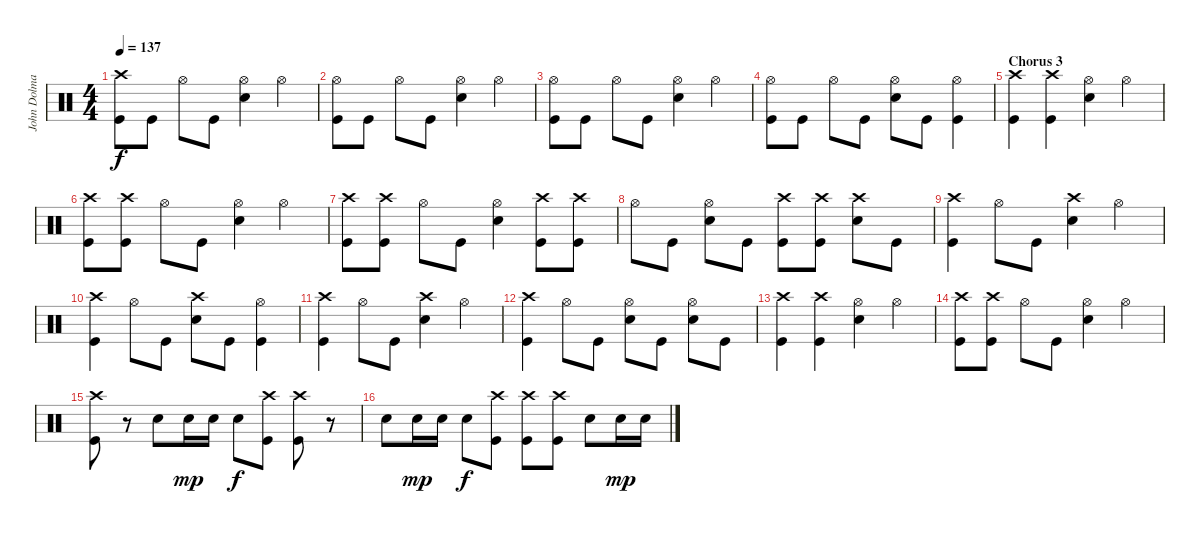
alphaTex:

\track ("John Dolmayan - Drums" "John Dolma") {instrument percussion}
\staff {score}
\articulation defaults
\ts (4 4)
\tempo 137
\clef neutral
\ks c
("Crash high (hit)" "Kick (hit)").8{dy f} "Kick (hit)".8 "Hi-Hat (open)".8 "Kick (hit)".8 ("Hi-Hat (open)" "Snare (hit) 2").4 "Hi-Hat (open)".4 |
("Hi-Hat (open)" "Kick (hit)").8 "Kick (hit)".8 "Hi-Hat (open)".8 "Kick (hit)".8 ("Hi-Hat (open)" "Snare (hit) 2").4 "Hi-Hat (open)".4 |
("Hi-Hat (open)" "Kick (hit)").8 "Kick (hit)".8 "Hi-Hat (open)".8 "Kick (hit)".8 ("Hi-Hat (open)" "Snare (hit) 2").4 "Hi-Hat (open)".4 |
("Hi-Hat (open)" "Kick (hit)").8 "Kick (hit)".8 "Hi-Hat (open)".8 "Kick (hit)".8 ("Hi-Hat (open)" "Snare (hit) 2").8 "Kick (hit)".8 ("Hi-Hat (open)" "Kick (hit)").4 |
\section ("" "Chorus 3")
("Crash high (hit)" "Kick (hit)").4 ("Crash high (hit)" "Kick (hit)").4 ("Hi-Hat (open)" "Snare (hit) 2").4 "Hi-Hat (open)".4 |
("Crash high (hit)" "Kick (hit)").8 ("Crash high (hit)" "Kick (hit)").8 "Hi-Hat (open)".8 "Kick (hit)".8 ("Hi-Hat (open)" "Snare (hit) 2").4 "Hi-Hat (open)".4 |
("Crash high (hit)" "Kick (hit)").8 ("Crash high (hit)" "Kick (hit)").8 "Hi-Hat (open)".8 "Kick (hit)".8 ("Hi-Hat (open)" "Snare (hit) 2").4 ("Crash high (hit)" "Kick (hit)").8 ("Crash high (hit)" "Kick (hit)").8 |
"Hi-Hat (open)".8 "Kick (hit)".8 ("Hi-Hat (open)" "Snare (hit) 2").8 "Kick (hit)".8 ("Crash high (hit)" "Kick (hit)").8 ("Crash high (hit)" "Kick (hit)").8 ("Crash high (hit)" "Snare (hit) 2").8 "Kick (hit)".8 |
("Crash high (hit)" "Kick (hit)").4 "Hi-Hat (open)".8 "Kick (hit)".8 ("Crash high (hit)" "Snare (hit) 2").4 "Hi-Hat (open)".4 |
("Crash high (hit)" "Kick (hit)").4 "Hi-Hat (open)".8 "Kick (hit)".8 ("Crash high (hit)" "Snare (hit) 2").8 "Kick (hit)".8 ("Hi-Hat (open)" "Kick (hit)").4 |
("Crash high (hit)" "Kick (hit)").4 "Hi-Hat (open)".8 "Kick (hit)".8 ("Crash high (hit)" "Snare (hit) 2").4 "Hi-Hat (open)".4 |
("Crash high (hit)" "Kick (hit)").4 "Hi-Hat (open)".8 "Kick (hit)".8 ("Hi-Hat (open)" "Snare (hit) 2").8 "Kick (hit)".8 ("Hi-Hat (open)" "Snare (hit) 2").8 "Kick (hit)".8 |
("Crash high (hit)" "Kick (hit)").4 ("Crash high (hit)" "Kick (hit)").4 ("Hi-Hat (open)" "Snare (hit) 2").4 "Hi-Hat (open)".4 |
("Crash high (hit)" "Kick (hit)").8 ("Crash high (hit)" "Kick (hit)").8 "Hi-Hat (open)".8 "Kick (hit)".8 ("Hi-Hat (open)" "Snare (hit) 2").4 "Hi-Hat (open)".4 |
("Crash high (hit)" "Kick (hit)").8 r.8 "Snare (hit) 2".8 "Snare (hit) 2".16{dy mp} "Snare (hit) 2".16 "Snare (hit) 2".8{dy f} ("Crash high (hit)" "Kick (hit)").8 ("Crash high (hit)" "Kick (hit)").8 r.8 |
"Snare (hit) 2".8 "Snare (hit) 2".16{dy mp} "Snare (hit) 2".16 "Snare (hit) 2".8{dy f} ("Crash high (hit)" "Kick (hit)").8 ("Crash high (hit)" "Kick (hit)").8 ("Crash high (hit)" "Kick (hit)").8 "Snare (hit) 2".8 "Snare (hit) 2".16{dy mp} "Snare (hit) 2".16
